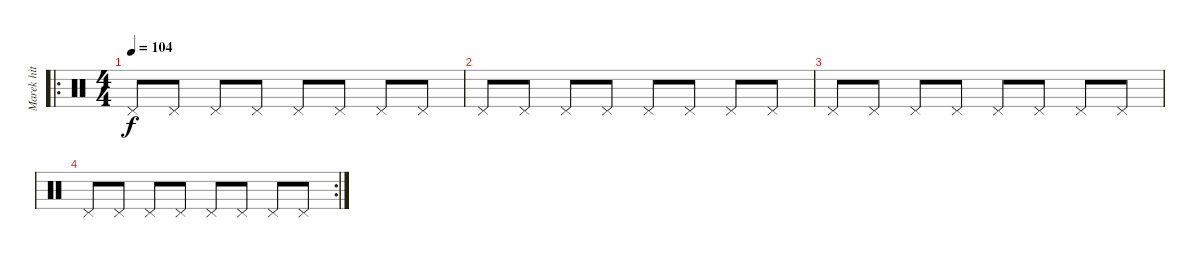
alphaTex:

\track ("Marek hit hat" "Marek hit ") {instrument percussion}
\staff {score}
\articulation defaults
\ro
\ts (4 4)
\tempo 104
\clef neutral
\ks c "Pedal Hi-Hat (hit)".8{dy f} "Pedal Hi-Hat (hit)".8 "Pedal Hi-Hat (hit)".8 "Pedal Hi-Hat (hit)".8 "Pedal Hi-Hat (hit)".8 "Pedal Hi-Hat (hit)".8 "Pedal Hi-Hat (hit)".8 "Pedal Hi-Hat (hit)".8
|
"Pedal Hi-Hat (hit)".8 "Pedal Hi-Hat (hit)".8 "Pedal Hi-Hat (hit)".8 "Pedal Hi-Hat (hit)".8 "Pedal Hi-Hat (hit)".8 "Pedal Hi-Hat (hit)".8 "Pedal Hi-Hat (hit)".8 "Pedal Hi-Hat (hit)".8 |
"Pedal Hi-Hat (hit)".8 "Pedal Hi-Hat (hit)".8 "Pedal Hi-Hat (hit)".8 "Pedal Hi-Hat (hit)".8 "Pedal Hi-Hat (hit)".8 "Pedal Hi-Hat (hit)".8 "Pedal Hi-Hat (hit)".8 "Pedal Hi-Hat (hit)".8 |
\rc 2 "Pedal Hi-Hat (hit)".8 "Pedal Hi-Hat (hit)".8 "Pedal Hi-Hat (hit)".8 "Pedal Hi-Hat (hit)".8 "Pedal Hi-Hat (hit)".8 "Pedal Hi-Hat (hit)".8 "Pedal Hi-Hat (hit)".8 "Pedal Hi-Hat (hit)".8
